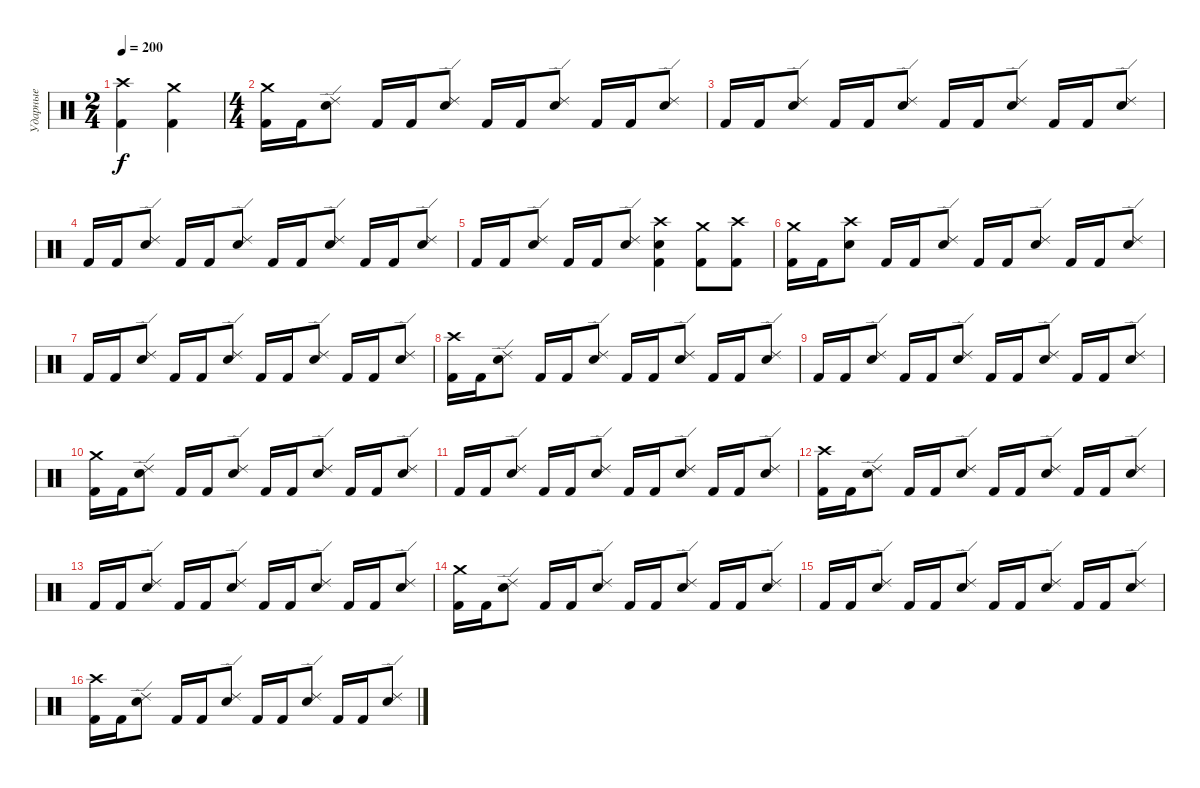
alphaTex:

\track ("Ударные" "Ударные") {instrument percussion}
\staff {score}
\articulation defaults
\ts (2 4)
\tempo 200
\clef neutral
\ks c
("Crash high (hit)" "Kick (hit) 2").4{dy f} ("Crash medium (hit)" "Kick (hit) 2").4 |
\ts (4 4)
("Crash medium (hit)" "Kick (hit) 2").16 "Kick (hit) 2".16 ("Ride (edge) 2" "Electric Snare (hit)").8 "Kick (hit) 2".16 "Kick (hit) 2".16 ("Ride (edge) 2" "Electric Snare (hit)").8 "Kick (hit) 2".16 "Kick (hit) 2".16 ("Ride (edge) 2" "Electric Snare (hit)").8 "Kick (hit) 2".16 "Kick (hit) 2".16 ("Ride (edge) 2" "Electric Snare (hit)").8 |
"Kick (hit) 2".16 "Kick (hit) 2".16 ("Ride (edge) 2" "Electric Snare (hit)").8 "Kick (hit) 2".16 "Kick (hit) 2".16 ("Ride (edge) 2" "Electric Snare (hit)").8 "Kick (hit) 2".16 "Kick (hit) 2".16 ("Ride (edge) 2" "Electric Snare (hit)").8 "Kick (hit) 2".16 "Kick (hit) 2".16 ("Ride (edge) 2" "Electric Snare (hit)").8 |
"Kick (hit) 2".16 "Kick (hit) 2".16 ("Ride (edge) 2" "Electric Snare (hit)").8 "Kick (hit) 2".16 "Kick (hit) 2".16 ("Ride (edge) 2" "Electric Snare (hit)").8 "Kick (hit) 2".16 "Kick (hit) 2".16 ("Ride (edge) 2" "Electric Snare (hit)").8 "Kick (hit) 2".16 "Kick (hit) 2".16 ("Ride (edge) 2" "Electric Snare (hit)").8 |
"Kick (hit) 2".16 "Kick (hit) 2".16 ("Ride (edge) 2" "Electric Snare (hit)").8 "Kick (hit) 2".16 "Kick (hit) 2".16 ("Ride (edge) 2" "Electric Snare (hit)").8 ("Crash high (hit)" "Electric Snare (hit)" "Kick (hit) 2").4 ("Crash medium (hit)" "Kick (hit) 2").8 ("Crash high (hit)" "Kick (hit) 2").8 |
("Crash medium (hit)" "Kick (hit) 2").16 "Kick (hit) 2".16 ("Crash high (hit)" "Electric Snare (hit)").8 "Kick (hit) 2".16 "Kick (hit) 2".16 ("Ride (edge) 2" "Electric Snare (hit)").8 "Kick (hit) 2".16 "Kick (hit) 2".16 ("Ride (edge) 2" "Electric Snare (hit)").8 "Kick (hit) 2".16 "Kick (hit) 2".16 ("Ride (edge) 2" "Electric Snare (hit)").8 |
"Kick (hit) 2".16 "Kick (hit) 2".16 ("Ride (edge) 2" "Electric Snare (hit)").8 "Kick (hit) 2".16 "Kick (hit) 2".16 ("Ride (edge) 2" "Electric Snare (hit)").8 "Kick (hit) 2".16 "Kick (hit) 2".16 ("Ride (edge) 2" "Electric Snare (hit)").8 "Kick (hit) 2".16 "Kick (hit) 2".16 ("Ride (edge) 2" "Electric Snare (hit)").8 |
("Crash high (hit)" "Kick (hit) 2").16 "Kick (hit) 2".16 ("Ride (edge) 2" "Electric Snare (hit)").8 "Kick (hit) 2".16 "Kick (hit) 2".16 ("Ride (edge) 2" "Electric Snare (hit)").8 "Kick (hit) 2".16 "Kick (hit) 2".16 ("Ride (edge) 2" "Electric Snare (hit)").8 "Kick (hit) 2".16 "Kick (hit) 2".16 ("Ride (edge) 2" "Electric Snare (hit)").8 |
"Kick (hit) 2".16 "Kick (hit) 2".16 ("Ride (edge) 2" "Electric Snare (hit)").8 "Kick (hit) 2".16 "Kick (hit) 2".16 ("Ride (edge) 2" "Electric Snare (hit)").8 "Kick (hit) 2".16 "Kick (hit) 2".16 ("Ride (edge) 2" "Electric Snare (hit)").8 "Kick (hit) 2".16 "Kick (hit) 2".16 ("Ride (edge) 2" "Electric Snare (hit)").8 |
("Crash medium (hit)" "Kick (hit) 2").16 "Kick (hit) 2".16 ("Ride (edge) 2" "Electric Snare (hit)").8 "Kick (hit) 2".16 "Kick (hit) 2".16 ("Ride (edge) 2" "Electric Snare (hit)").8 "Kick (hit) 2".16 "Kick (hit) 2".16 ("Ride (edge) 2" "Electric Snare (hit)").8 "Kick (hit) 2".16 "Kick (hit) 2".16 ("Ride (edge) 2" "Electric Snare (hit)").8 |
"Kick (hit) 2".16 "Kick (hit) 2".16 ("Ride (edge) 2" "Electric Snare (hit)").8 "Kick (hit) 2".16 "Kick (hit) 2".16 ("Ride (edge) 2" "Electric Snare (hit)").8 "Kick (hit) 2".16 "Kick (hit) 2".16 ("Ride (edge) 2" "Electric Snare (hit)").8 "Kick (hit) 2".16 "Kick (hit) 2".16 ("Ride (edge) 2" "Electric Snare (hit)").8 |
("Crash high (hit)" "Kick (hit) 2").16 "Kick (hit) 2".16 ("Ride (edge) 2" "Electric Snare (hit)").8 "Kick (hit) 2".16 "Kick (hit) 2".16 ("Ride (edge) 2" "Electric Snare (hit)").8 "Kick (hit) 2".16 "Kick (hit) 2".16 ("Ride (edge) 2" "Electric Snare (hit)").8 "Kick (hit) 2".16 "Kick (hit) 2".16 ("Ride (edge) 2" "Electric Snare (hit)").8 |
"Kick (hit) 2".16 "Kick (hit) 2".16 ("Ride (edge) 2" "Electric Snare (hit)").8 "Kick (hit) 2".16 "Kick (hit) 2".16 ("Ride (edge) 2" "Electric Snare (hit)").8 "Kick (hit) 2".16 "Kick (hit) 2".16 ("Ride (edge) 2" "Electric Snare (hit)").8 "Kick (hit) 2".16 "Kick (hit) 2".16 ("Ride (edge) 2" "Electric Snare (hit)").8 |
("Crash medium (hit)" "Kick (hit) 2").16 "Kick (hit) 2".16 ("Ride (edge) 2" "Electric Snare (hit)").8 "Kick (hit) 2".16 "Kick (hit) 2".16 ("Ride (edge) 2" "Electric Snare (hit)").8 "Kick (hit) 2".16 "Kick (hit) 2".16 ("Ride (edge) 2" "Electric Snare (hit)").8 "Kick (hit) 2".16 "Kick (hit) 2".16 ("Ride (edge) 2" "Electric Snare (hit)").8 |
"Kick (hit) 2".16 "Kick (hit) 2".16 ("Ride (edge) 2" "Electric Snare (hit)").8 "Kick (hit) 2".16 "Kick (hit) 2".16 ("Ride (edge) 2" "Electric Snare (hit)").8 "Kick (hit) 2".16 "Kick (hit) 2".16 ("Ride (edge) 2" "Electric Snare (hit)").8 "Kick (hit) 2".16 "Kick (hit) 2".16 ("Ride (edge) 2" "Electric Snare (hit)").8 |
("Crash high (hit)" "Kick (hit) 2").16 "Kick (hit) 2".16 ("Ride (edge) 2" "Electric Snare (hit)").8 "Kick (hit) 2".16 "Kick (hit) 2".16 ("Ride (edge) 2" "Electric Snare (hit)").8 "Kick (hit) 2".16 "Kick (hit) 2".16 ("Ride (edge) 2" "Electric Snare (hit)").8 "Kick (hit) 2".16 "Kick (hit) 2".16 ("Ride (edge) 2" "Electric Snare (hit)").8
